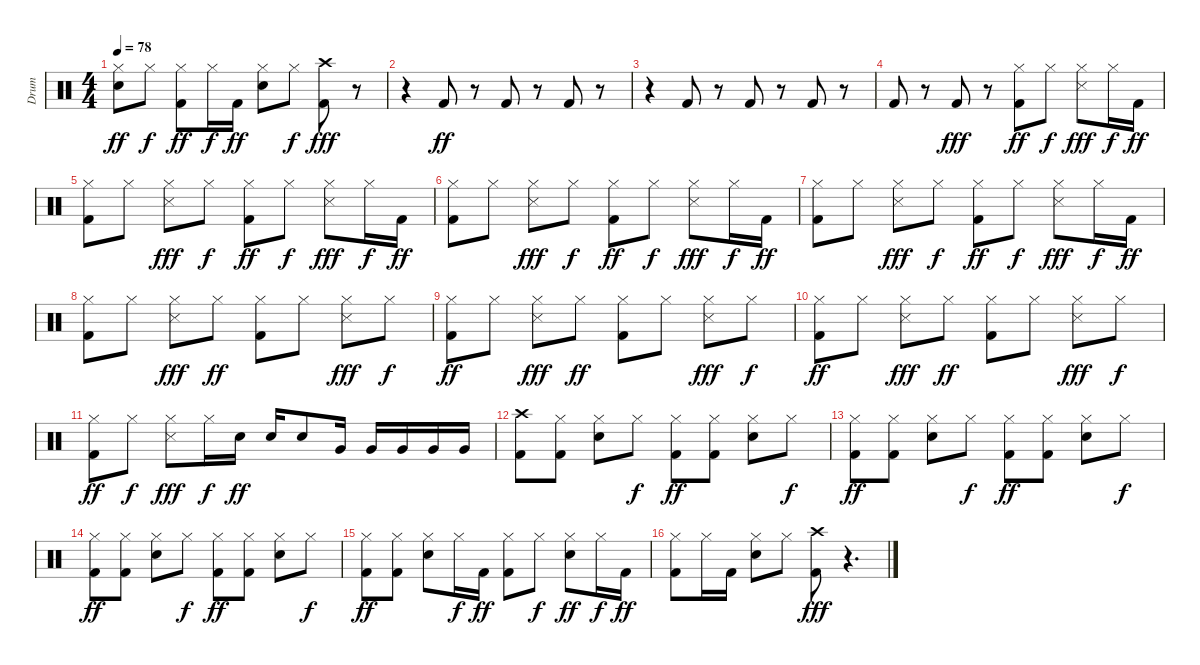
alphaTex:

\track ("Drum" "Drum") {instrument percussion}
\staff {score}
\articulation defaults
\ts (4 4)
\tempo 78
\clef neutral
\ks c
("Snare (hit) 2" "Hi-Hat (closed)").8{dy ff} "Hi-Hat (closed)".8{dy f} ("Kick (hit) 2" "Hi-Hat (closed)").8{dy ff} "Hi-Hat (closed)".16{dy f} "Kick (hit) 2".16{dy ff} ("Snare (hit) 2" "Hi-Hat (closed)").8 "Hi-Hat (closed)".8{dy f} ("Kick (hit) 2" "Crash high (hit)").8{dy fff} r.8 |
r.4 "Kick (hit) 2".8{dy ff} r.8 "Kick (hit) 2".8 r.8 "Kick (hit) 2".8 r.8 |
r.4 "Kick (hit) 2".8 r.8 "Kick (hit) 2".8 r.8 "Kick (hit) 2".8 r.8 |
"Kick (hit) 2".8 r.8 "Kick (hit) 2".8{dy fff} r.8 ("Kick (hit) 2" "Hi-Hat (closed)").8{dy ff} "Hi-Hat (closed)".8{dy f} ("Snare (side stick) 3" "Hi-Hat (closed)").8{dy fff} "Hi-Hat (closed)".16{dy f} "Kick (hit) 2".16{dy ff} |
("Kick (hit) 2" "Hi-Hat (closed)").8 "Hi-Hat (closed)".8 ("Hi-Hat (closed)" "Snare (side stick) 3").8{dy fff} "Hi-Hat (closed)".8{dy f} ("Kick (hit) 2" "Hi-Hat (closed)").8{dy ff} "Hi-Hat (closed)".8{dy f} ("Snare (side stick) 3" "Hi-Hat (closed)").8{dy fff} "Hi-Hat (closed)".16{dy f} "Kick (hit) 2".16{dy ff} |
("Kick (hit) 2" "Hi-Hat (closed)").8 "Hi-Hat (closed)".8 ("Hi-Hat (closed)" "Snare (side stick) 3").8{dy fff} "Hi-Hat (closed)".8{dy f} ("Kick (hit) 2" "Hi-Hat (closed)").8{dy ff} "Hi-Hat (closed)".8{dy f} ("Snare (side stick) 3" "Hi-Hat (closed)").8{dy fff} "Hi-Hat (closed)".16{dy f} "Kick (hit) 2".16{dy ff} |
("Kick (hit) 2" "Hi-Hat (closed)").8 "Hi-Hat (closed)".8 ("Hi-Hat (closed)" "Snare (side stick) 3").8{dy fff} "Hi-Hat (closed)".8{dy f} ("Kick (hit) 2" "Hi-Hat (closed)").8{dy ff} "Hi-Hat (closed)".8{dy f} ("Snare (side stick) 3" "Hi-Hat (closed)").8{dy fff} "Hi-Hat (closed)".16{dy f} "Kick (hit) 2".16{dy ff} |
("Kick (hit) 2" "Hi-Hat (closed)").8 "Hi-Hat (closed)".8 ("Snare (side stick) 3" "Hi-Hat (closed)").8{dy fff} "Hi-Hat (closed)".8{dy ff} ("Kick (hit) 2" "Hi-Hat (closed)").8 "Hi-Hat (closed)".8 ("Snare (side stick) 3" "Hi-Hat (closed)").8{dy fff} "Hi-Hat (closed)".8{dy f} |
("Kick (hit) 2" "Hi-Hat (closed)").8{dy ff} "Hi-Hat (closed)".8 ("Snare (side stick) 3" "Hi-Hat (closed)").8{dy fff} "Hi-Hat (closed)".8{dy ff} ("Kick (hit) 2" "Hi-Hat (closed)").8 "Hi-Hat (closed)".8 ("Snare (side stick) 3" "Hi-Hat (closed)").8{dy fff} "Hi-Hat (closed)".8{dy f} |
("Kick (hit) 2" "Hi-Hat (closed)").8{dy ff} "Hi-Hat (closed)".8 ("Snare (side stick) 3" "Hi-Hat (closed)").8{dy fff} "Hi-Hat (closed)".8{dy ff} ("Kick (hit) 2" "Hi-Hat (closed)").8 "Hi-Hat (closed)".8 ("Snare (side stick) 3" "Hi-Hat (closed)").8{dy fff} "Hi-Hat (closed)".8{dy f} |
("Kick (hit) 2" "Hi-Hat (closed)").8{dy ff} "Hi-Hat (closed)".8{dy f} ("Snare (side stick) 3" "Hi-Hat (closed)").8{dy fff} "Hi-Hat (closed)".16{dy f} "Snare (hit) 2".16{dy ff} "Snare (hit) 2".16 "Snare (hit) 2".8 "Very Low Tom (hit)".16 "Very Low Tom (hit)".16 "Very Low Tom (hit)".16 "Very Low Tom (hit)".16 "Very Low Tom (hit)".16 |
("Kick (hit) 2" "Crash high (hit)").8 ("Kick (hit) 2" "Hi-Hat (closed)").8 ("Snare (hit) 2" "Hi-Hat (closed)").8 "Hi-Hat (closed)".8{dy f} ("Kick (hit) 2" "Hi-Hat (closed)").8{dy ff} ("Kick (hit) 2" "Hi-Hat (closed)").8 ("Snare (hit) 2" "Hi-Hat (closed)").8 "Hi-Hat (closed)".8{dy f} |
("Kick (hit) 2" "Hi-Hat (closed)").8{dy ff} ("Kick (hit) 2" "Hi-Hat (closed)").8 ("Snare (hit) 2" "Hi-Hat (closed)").8 "Hi-Hat (closed)".8{dy f} ("Kick (hit) 2" "Hi-Hat (closed)").8{dy ff} ("Kick (hit) 2" "Hi-Hat (closed)").8 ("Snare (hit) 2" "Hi-Hat (closed)").8 "Hi-Hat (closed)".8{dy f} |
("Kick (hit) 2" "Hi-Hat (closed)").8{dy ff} ("Kick (hit) 2" "Hi-Hat (closed)").8 ("Snare (hit) 2" "Hi-Hat (closed)").8 "Hi-Hat (closed)".8{dy f} ("Kick (hit) 2" "Hi-Hat (closed)").8{dy ff} ("Kick (hit) 2" "Hi-Hat (closed)").8 ("Snare (hit) 2" "Hi-Hat (closed)").8 "Hi-Hat (closed)".8{dy f} |
("Kick (hit) 2" "Hi-Hat (closed)").8{dy ff} ("Kick (hit) 2" "Hi-Hat (closed)").8 ("Snare (hit) 2" "Hi-Hat (closed)").8 "Hi-Hat (closed)".16{dy f} "Kick (hit) 2".16{dy ff} ("Kick (hit) 2" "Hi-Hat (closed)").8 "Hi-Hat (closed)".8{dy f} ("Snare (hit) 2" "Hi-Hat (closed)").8{dy ff} "Hi-Hat (closed)".16{dy f} "Kick (hit) 2".16{dy ff} |
("Kick (hit) 2" "Hi-Hat (closed)").8 "Hi-Hat (closed)".16 "Kick (hit) 2".16 ("Snare (hit) 2" "Hi-Hat (closed)").8 "Hi-Hat (closed)".8 ("Kick (hit) 2" "Crash high (hit)").8{dy fff} r.4{d}
